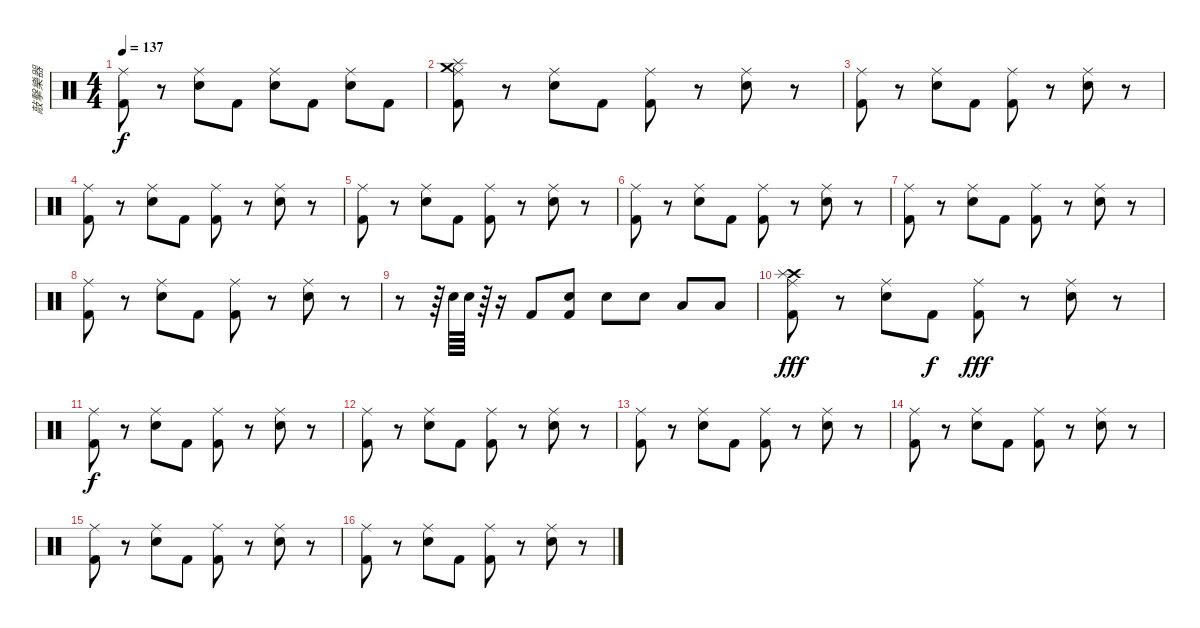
\track ("敲擊樂器" "敲擊樂器") {instrument percussion}
\staff {score}
\articulation defaults
\ts (4 4)
\tempo 137
\clef neutral
\ks c
("Kick (hit) 2" "Ride (middle)").8{dy f} r.8 ("Snare (hit) 2" "Ride (middle)").8 "Kick (hit) 2".8 ("Snare (hit) 2" "Ride (middle)").8 "Kick (hit) 2".8 ("Snare (hit) 2" "Ride (middle)").8 "Kick (hit) 2".8 |
("Splash (hit)" "Crash medium (hit)" "Kick (hit) 2" "Ride (middle)").8 r.8 ("Snare (hit) 2" "Ride (middle)").8 "Kick (hit) 2".8 ("Kick (hit) 2" "Ride (middle)").8 r.8 ("Snare (hit) 2" "Ride (middle)").8 r.8 |
("Kick (hit) 2" "Ride (middle)").8 r.8 ("Snare (hit) 2" "Ride (middle)").8 "Kick (hit) 2".8 ("Kick (hit) 2" "Ride (middle)").8 r.8 ("Snare (hit) 2" "Ride (middle)").8 r.8 |
("Kick (hit) 2" "Ride (middle)").8 r.8 ("Snare (hit) 2" "Ride (middle)").8 "Kick (hit) 2".8 ("Kick (hit) 2" "Ride (middle)").8 r.8 ("Snare (hit) 2" "Ride (middle)").8 r.8 |
("Kick (hit) 2" "Ride (middle)").8 r.8 ("Snare (hit) 2" "Ride (middle)").8 "Kick (hit) 2".8 ("Kick (hit) 2" "Ride (middle)").8 r.8 ("Snare (hit) 2" "Ride (middle)").8 r.8 |
("Kick (hit) 2" "Ride (middle)").8 r.8 ("Snare (hit) 2" "Ride (middle)").8 "Kick (hit) 2".8 ("Kick (hit) 2" "Ride (middle)").8 r.8 ("Snare (hit) 2" "Ride (middle)").8 r.8 |
("Kick (hit) 2" "Ride (middle)").8 r.8 ("Snare (hit) 2" "Ride (middle)").8 "Kick (hit) 2".8 ("Kick (hit) 2" "Ride (middle)").8 r.8 ("Snare (hit) 2" "Ride (middle)").8 r.8 |
("Kick (hit) 2" "Ride (middle)").8 r.8 ("Snare (hit) 2" "Ride (middle)").8 "Kick (hit) 2".8 ("Kick (hit) 2" "Ride (middle)").8 r.8 ("Snare (hit) 2" "Ride (middle)").8 r.8 |
r.8 r.64 "Snare (hit) 2".64 "Snare (hit) 2".64 r.64 r.16 "Kick (hit) 2".8 ("Snare (hit) 2" "Kick (hit) 2").8 "Snare (hit) 2".8 "Snare (hit) 2".8 "Low Tom (hit)".8 "Low Tom (hit)".8 |
("Crash high (hit)" "Splash (hit)" "Kick (hit) 2" "Ride (middle)").8{dy fff} r.8 ("Snare (hit) 2" "Ride (middle)").8 "Kick (hit) 2".8{dy f} ("Kick (hit) 2" "Ride (middle)").8{dy fff} r.8 ("Snare (hit) 2" "Ride (middle)").8 r.8 |
("Kick (hit) 2" "Ride (middle)").8{dy f} r.8 ("Snare (hit) 2" "Ride (middle)").8 "Kick (hit) 2".8 ("Kick (hit) 2" "Ride (middle)").8 r.8 ("Snare (hit) 2" "Ride (middle)").8 r.8 |
("Kick (hit) 2" "Ride (middle)").8 r.8 ("Snare (hit) 2" "Ride (middle)").8 "Kick (hit) 2".8 ("Kick (hit) 2" "Ride (middle)").8 r.8 ("Snare (hit) 2" "Ride (middle)").8 r.8 |
("Kick (hit) 2" "Ride (middle)").8 r.8 ("Snare (hit) 2" "Ride (middle)").8 "Kick (hit) 2".8 ("Kick (hit) 2" "Ride (middle)").8 r.8 ("Snare (hit) 2" "Ride (middle)").8 r.8 |
("Kick (hit) 2" "Ride (middle)").8 r.8 ("Snare (hit) 2" "Ride (middle)").8 "Kick (hit) 2".8 ("Kick (hit) 2" "Ride (middle)").8 r.8 ("Snare (hit) 2" "Ride (middle)").8 r.8 |
("Kick (hit) 2" "Ride (middle)").8 r.8 ("Snare (hit) 2" "Ride (middle)").8 "Kick (hit) 2".8 ("Kick (hit) 2" "Ride (middle)").8 r.8 ("Snare (hit) 2" "Ride (middle)").8 r.8 |
("Kick (hit) 2" "Ride (middle)").8 r.8 ("Snare (hit) 2" "Ride (middle)").8 "Kick (hit) 2".8 ("Kick (hit) 2" "Ride (middle)").8 r.8 ("Snare (hit) 2" "Ride (middle)").8 r.8
